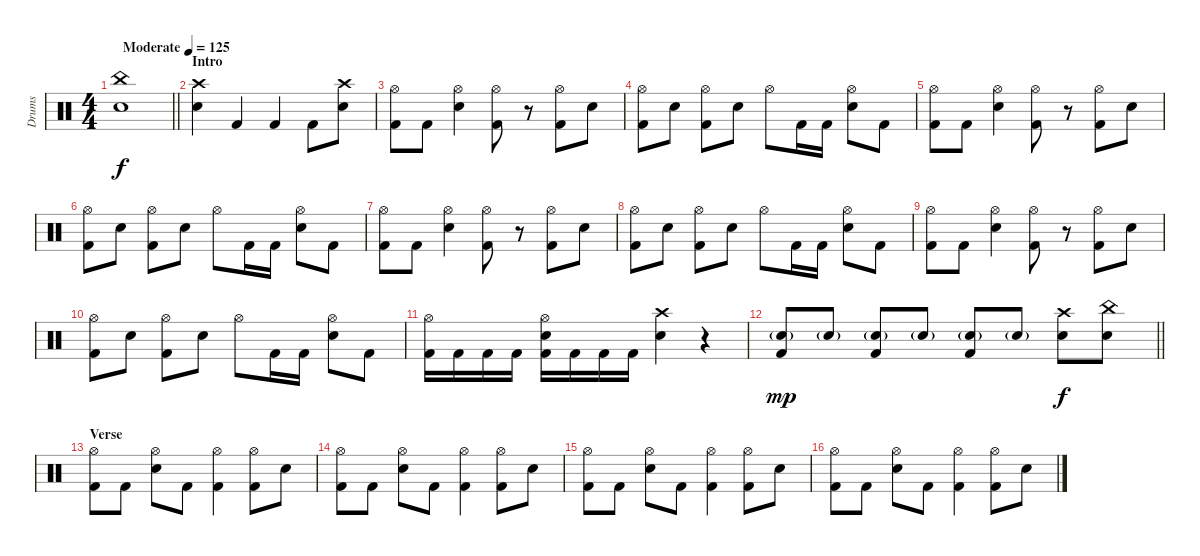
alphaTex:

\track ("Drums" "Drums") {instrument percussion}
\staff {score}
\articulation defaults
\ts (4 4)
\tempo (125 "Moderate")
\clef neutral
\barLineRight lightlight
\ks c
("China (hit)" "Electric Snare (hit)").1{dy f} |
\section ("" "Intro")
("Crash high (hit)" "Electric Snare (hit)").4 "Kick (hit) 2".4 "Kick (hit) 2".4 "Kick (hit) 2".8 ("Crash high (hit)" "Electric Snare (hit)").8 |
("Hi-Hat (open)" "Kick (hit) 2").8 "Kick (hit) 2".8 ("Hi-Hat (open)" "Electric Snare (hit)").4 ("Hi-Hat (open)" "Kick (hit) 2").8 r.8 ("Hi-Hat (open)" "Kick (hit) 2").8 "Electric Snare (hit)".8 |
("Hi-Hat (open)" "Kick (hit) 2").8 "Electric Snare (hit)".8 ("Hi-Hat (open)" "Kick (hit) 2").8 "Electric Snare (hit)".8 "Hi-Hat (open)".8 "Kick (hit) 2".16 "Kick (hit) 2".16 ("Hi-Hat (open)" "Electric Snare (hit)").8 "Kick (hit) 2".8 |
("Hi-Hat (open)" "Kick (hit) 2").8 "Kick (hit) 2".8 ("Hi-Hat (open)" "Electric Snare (hit)").4 ("Hi-Hat (open)" "Kick (hit) 2").8 r.8 ("Hi-Hat (open)" "Kick (hit) 2").8 "Electric Snare (hit)".8 |
("Hi-Hat (open)" "Kick (hit) 2").8 "Electric Snare (hit)".8 ("Hi-Hat (open)" "Kick (hit) 2").8 "Electric Snare (hit)".8 "Hi-Hat (open)".8 "Kick (hit) 2".16 "Kick (hit) 2".16 ("Hi-Hat (open)" "Electric Snare (hit)").8 "Kick (hit) 2".8 |
("Hi-Hat (open)" "Kick (hit) 2").8 "Kick (hit) 2".8 ("Hi-Hat (open)" "Electric Snare (hit)").4 ("Hi-Hat (open)" "Kick (hit) 2").8 r.8 ("Hi-Hat (open)" "Kick (hit) 2").8 "Electric Snare (hit)".8 |
("Hi-Hat (open)" "Kick (hit) 2").8 "Electric Snare (hit)".8 ("Hi-Hat (open)" "Kick (hit) 2").8 "Electric Snare (hit)".8 "Hi-Hat (open)".8 "Kick (hit) 2".16 "Kick (hit) 2".16 ("Hi-Hat (open)" "Electric Snare (hit)").8 "Kick (hit) 2".8 |
("Hi-Hat (open)" "Kick (hit) 2").8 "Kick (hit) 2".8 ("Hi-Hat (open)" "Electric Snare (hit)").4 ("Hi-Hat (open)" "Kick (hit) 2").8 r.8 ("Hi-Hat (open)" "Kick (hit) 2").8 "Electric Snare (hit)".8 |
("Hi-Hat (open)" "Kick (hit) 2").8 "Electric Snare (hit)".8 ("Hi-Hat (open)" "Kick (hit) 2").8 "Electric Snare (hit)".8 "Hi-Hat (open)".8 "Kick (hit) 2".16 "Kick (hit) 2".16 ("Hi-Hat (open)" "Electric Snare (hit)").8 "Kick (hit) 2".8 |
("Hi-Hat (open)" "Kick (hit) 2").16 "Kick (hit) 2".16 "Kick (hit) 2".16 "Kick (hit) 2".16 ("Hi-Hat (open)" "Kick (hit) 2" "Electric Snare (hit)").16 "Kick (hit) 2".16 "Kick (hit) 2".16 "Kick (hit) 2".16 ("Crash high (hit)" "Electric Snare (hit)").4 r.4 |
\barLineRight lightlight
("Kick (hit) 2" "Electric Snare (hit)"{g}).8{dy mp} "Electric Snare (hit)"{g}.8 ("Kick (hit) 2" "Electric Snare (hit)"{g}).8 "Electric Snare (hit)"{g}.8 ("Kick (hit) 2" "Electric Snare (hit)"{g}).8 "Electric Snare (hit)"{g}.8 ("Crash high (hit)" "Electric Snare (hit)").8{dy f} ("China (hit)" "Electric Snare (hit)").8 |
\section ("" "Verse")
("Hi-Hat (open)" "Kick (hit) 2").8 "Kick (hit) 2".8 ("Hi-Hat (open)" "Electric Snare (hit)").8 "Kick (hit) 2".8 ("Hi-Hat (open)" "Kick (hit) 2").4 ("Hi-Hat (open)" "Kick (hit) 2").8 "Electric Snare (hit)".8 |
("Hi-Hat (open)" "Kick (hit) 2").8 "Kick (hit) 2".8 ("Hi-Hat (open)" "Electric Snare (hit)").8 "Kick (hit) 2".8 ("Hi-Hat (open)" "Kick (hit) 2").4 ("Hi-Hat (open)" "Kick (hit) 2").8 "Electric Snare (hit)".8 |
("Hi-Hat (open)" "Kick (hit) 2").8 "Kick (hit) 2".8 ("Hi-Hat (open)" "Electric Snare (hit)").8 "Kick (hit) 2".8 ("Hi-Hat (open)" "Kick (hit) 2").4 ("Hi-Hat (open)" "Kick (hit) 2").8 "Electric Snare (hit)".8 |
("Hi-Hat (open)" "Kick (hit) 2").8 "Kick (hit) 2".8 ("Hi-Hat (open)" "Electric Snare (hit)").8 "Kick (hit) 2".8 ("Hi-Hat (open)" "Kick (hit) 2").4 ("Hi-Hat (open)" "Kick (hit) 2").8 "Electric Snare (hit)".8
